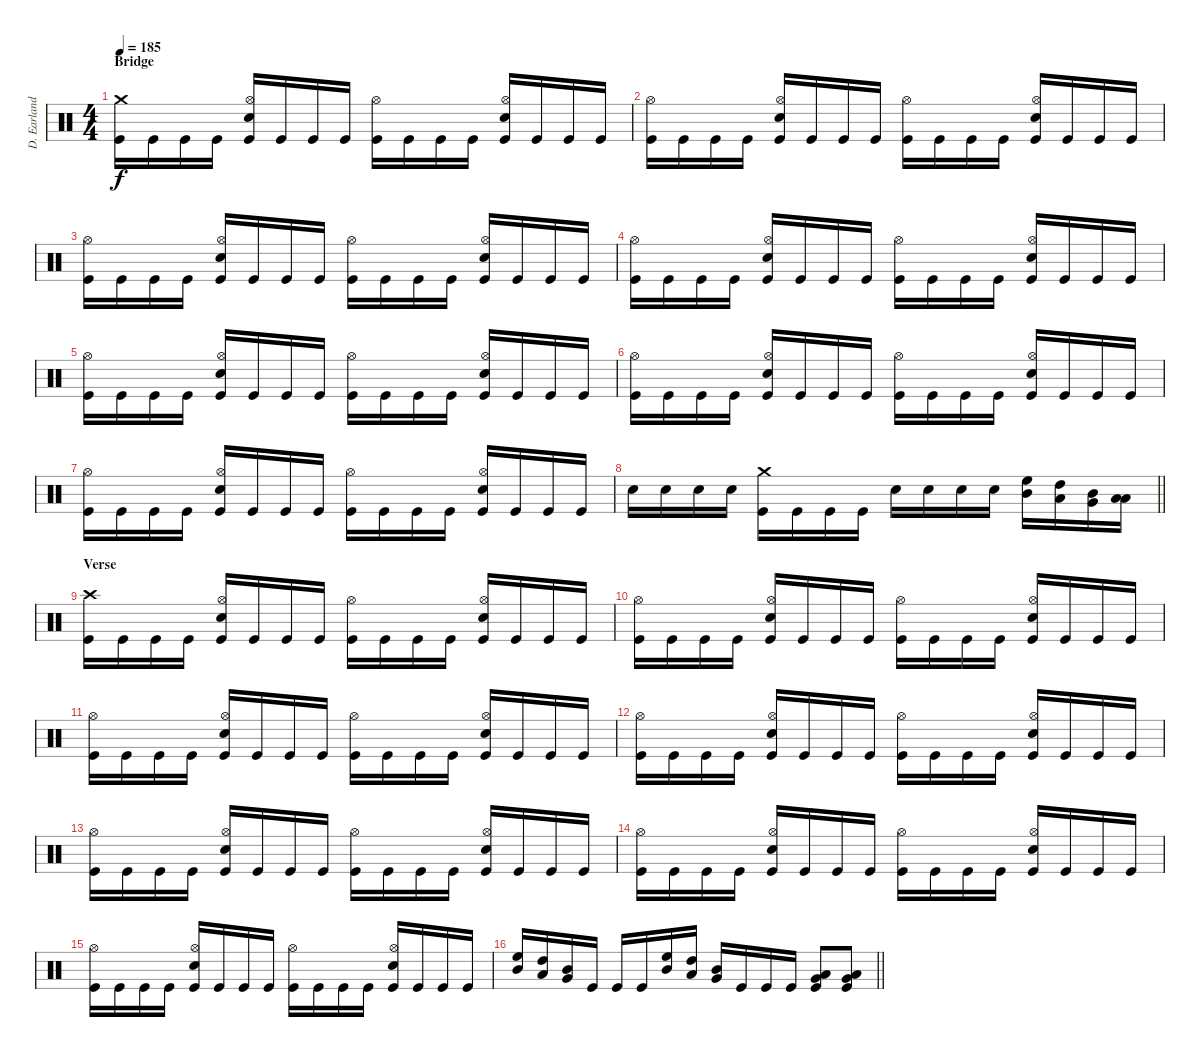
\track ("D. Earlanddson" "D. Earland") {instrument percussion}
\staff {score}
\articulation defaults
\ts (4 4)
\section ("" "Bridge")
\tempo 185
\clef neutral
\ks c
("Crash medium (hit)" "Kick (hit)").16{dy f} "Kick (hit)".16 "Kick (hit)".16 "Kick (hit)".16 ("Hi-Hat (open)" "Electric Snare (hit)" "Kick (hit)").16 "Kick (hit)".16 "Kick (hit)".16 "Kick (hit)".16 ("Hi-Hat (open)" "Kick (hit)").16 "Kick (hit)".16 "Kick (hit)".16 "Kick (hit)".16 ("Hi-Hat (open)" "Electric Snare (hit)" "Kick (hit)").16 "Kick (hit)".16 "Kick (hit)".16 "Kick (hit)".16 |
("Hi-Hat (open)" "Kick (hit)").16 "Kick (hit)".16 "Kick (hit)".16 "Kick (hit)".16 ("Hi-Hat (open)" "Electric Snare (hit)" "Kick (hit)").16 "Kick (hit)".16 "Kick (hit)".16 "Kick (hit)".16 ("Hi-Hat (open)" "Kick (hit)").16 "Kick (hit)".16 "Kick (hit)".16 "Kick (hit)".16 ("Hi-Hat (open)" "Electric Snare (hit)" "Kick (hit)").16 "Kick (hit)".16 "Kick (hit)".16 "Kick (hit)".16 |
("Hi-Hat (open)" "Kick (hit)").16 "Kick (hit)".16 "Kick (hit)".16 "Kick (hit)".16 ("Hi-Hat (open)" "Electric Snare (hit)" "Kick (hit)").16 "Kick (hit)".16 "Kick (hit)".16 "Kick (hit)".16 ("Hi-Hat (open)" "Kick (hit)").16 "Kick (hit)".16 "Kick (hit)".16 "Kick (hit)".16 ("Hi-Hat (open)" "Electric Snare (hit)" "Kick (hit)").16 "Kick (hit)".16 "Kick (hit)".16 "Kick (hit)".16 |
("Hi-Hat (open)" "Kick (hit)").16 "Kick (hit)".16 "Kick (hit)".16 "Kick (hit)".16 ("Hi-Hat (open)" "Electric Snare (hit)" "Kick (hit)").16 "Kick (hit)".16 "Kick (hit)".16 "Kick (hit)".16 ("Hi-Hat (open)" "Kick (hit)").16 "Kick (hit)".16 "Kick (hit)".16 "Kick (hit)".16 ("Hi-Hat (open)" "Electric Snare (hit)" "Kick (hit)").16 "Kick (hit)".16 "Kick (hit)".16 "Kick (hit)".16 |
("Hi-Hat (open)" "Kick (hit)").16 "Kick (hit)".16 "Kick (hit)".16 "Kick (hit)".16 ("Hi-Hat (open)" "Electric Snare (hit)" "Kick (hit)").16 "Kick (hit)".16 "Kick (hit)".16 "Kick (hit)".16 ("Hi-Hat (open)" "Kick (hit)").16 "Kick (hit)".16 "Kick (hit)".16 "Kick (hit)".16 ("Hi-Hat (open)" "Electric Snare (hit)" "Kick (hit)").16 "Kick (hit)".16 "Kick (hit)".16 "Kick (hit)".16 |
("Hi-Hat (open)" "Kick (hit)").16 "Kick (hit)".16 "Kick (hit)".16 "Kick (hit)".16 ("Hi-Hat (open)" "Electric Snare (hit)" "Kick (hit)").16 "Kick (hit)".16 "Kick (hit)".16 "Kick (hit)".16 ("Hi-Hat (open)" "Kick (hit)").16 "Kick (hit)".16 "Kick (hit)".16 "Kick (hit)".16 ("Hi-Hat (open)" "Electric Snare (hit)" "Kick (hit)").16 "Kick (hit)".16 "Kick (hit)".16 "Kick (hit)".16 |
("Hi-Hat (open)" "Kick (hit)").16 "Kick (hit)".16 "Kick (hit)".16 "Kick (hit)".16 ("Hi-Hat (open)" "Electric Snare (hit)" "Kick (hit)").16 "Kick (hit)".16 "Kick (hit)".16 "Kick (hit)".16 ("Hi-Hat (open)" "Kick (hit)").16 "Kick (hit)".16 "Kick (hit)".16 "Kick (hit)".16 ("Hi-Hat (open)" "Electric Snare (hit)" "Kick (hit)").16 "Kick (hit)".16 "Kick (hit)".16 "Kick (hit)".16 |
\barLineRight lightlight "Electric Snare (hit)".16 "Electric Snare (hit)".16 "Electric Snare (hit)".16 "Electric Snare (hit)".16
("Crash medium (hit)" "Kick (hit)").16 "Kick (hit)".16 "Kick (hit)".16 "Kick (hit)".16 "Electric Snare (hit)".16 "Electric Snare (hit)".16 "Electric Snare (hit)".16 "Electric Snare (hit)".16 ("High Floor Tom (hit)" "Mid Tom (hit)").16 ("High Tom (hit)" "Low Tom (hit)").16 ("Mid Tom (hit)" "Very Low Tom (hit)").16 ("Low Tom (hit)" "Low Floor Tom (hit)").16 |
\section ("" "Verse")
("Crash high (hit)" "Kick (hit)").16 "Kick (hit)".16 "Kick (hit)".16 "Kick (hit)".16 ("Hi-Hat (open)" "Electric Snare (hit)" "Kick (hit)").16 "Kick (hit)".16 "Kick (hit)".16 "Kick (hit)".16 ("Hi-Hat (open)" "Kick (hit)").16 "Kick (hit)".16 "Kick (hit)".16 "Kick (hit)".16 ("Hi-Hat (open)" "Electric Snare (hit)" "Kick (hit)").16 "Kick (hit)".16 "Kick (hit)".16 "Kick (hit)".16 |
("Hi-Hat (open)" "Kick (hit)").16 "Kick (hit)".16 "Kick (hit)".16 "Kick (hit)".16 ("Hi-Hat (open)" "Electric Snare (hit)" "Kick (hit)").16 "Kick (hit)".16 "Kick (hit)".16 "Kick (hit)".16 ("Hi-Hat (open)" "Kick (hit)").16 "Kick (hit)".16 "Kick (hit)".16 "Kick (hit)".16 ("Hi-Hat (open)" "Electric Snare (hit)" "Kick (hit)").16 "Kick (hit)".16 "Kick (hit)".16 "Kick (hit)".16 |
("Hi-Hat (open)" "Kick (hit)").16 "Kick (hit)".16 "Kick (hit)".16 "Kick (hit)".16 ("Hi-Hat (open)" "Electric Snare (hit)" "Kick (hit)").16 "Kick (hit)".16 "Kick (hit)".16 "Kick (hit)".16 ("Hi-Hat (open)" "Kick (hit)").16 "Kick (hit)".16 "Kick (hit)".16 "Kick (hit)".16 ("Hi-Hat (open)" "Electric Snare (hit)" "Kick (hit)").16 "Kick (hit)".16 "Kick (hit)".16 "Kick (hit)".16 |
("Hi-Hat (open)" "Kick (hit)").16 "Kick (hit)".16 "Kick (hit)".16 "Kick (hit)".16 ("Hi-Hat (open)" "Electric Snare (hit)" "Kick (hit)").16 "Kick (hit)".16 "Kick (hit)".16 "Kick (hit)".16 ("Hi-Hat (open)" "Kick (hit)").16 "Kick (hit)".16 "Kick (hit)".16 "Kick (hit)".16 ("Hi-Hat (open)" "Electric Snare (hit)" "Kick (hit)").16 "Kick (hit)".16 "Kick (hit)".16 "Kick (hit)".16 |
("Hi-Hat (open)" "Kick (hit)").16 "Kick (hit)".16 "Kick (hit)".16 "Kick (hit)".16 ("Hi-Hat (open)" "Electric Snare (hit)" "Kick (hit)").16 "Kick (hit)".16 "Kick (hit)".16 "Kick (hit)".16 ("Hi-Hat (open)" "Kick (hit)").16 "Kick (hit)".16 "Kick (hit)".16 "Kick (hit)".16 ("Hi-Hat (open)" "Electric Snare (hit)" "Kick (hit)").16 "Kick (hit)".16 "Kick (hit)".16 "Kick (hit)".16 |
("Hi-Hat (open)" "Kick (hit)").16 "Kick (hit)".16 "Kick (hit)".16 "Kick (hit)".16 ("Hi-Hat (open)" "Electric Snare (hit)" "Kick (hit)").16 "Kick (hit)".16 "Kick (hit)".16 "Kick (hit)".16 ("Hi-Hat (open)" "Kick (hit)").16 "Kick (hit)".16 "Kick (hit)".16 "Kick (hit)".16 ("Hi-Hat (open)" "Electric Snare (hit)" "Kick (hit)").16 "Kick (hit)".16 "Kick (hit)".16 "Kick (hit)".16 |
("Hi-Hat (open)" "Kick (hit)").16 "Kick (hit)".16 "Kick (hit)".16 "Kick (hit)".16 ("Hi-Hat (open)" "Electric Snare (hit)" "Kick (hit)").16 "Kick (hit)".16 "Kick (hit)".16 "Kick (hit)".16 ("Hi-Hat (open)" "Kick (hit)").16 "Kick (hit)".16 "Kick (hit)".16 "Kick (hit)".16 ("Hi-Hat (open)" "Electric Snare (hit)" "Kick (hit)").16 "Kick (hit)".16 "Kick (hit)".16 "Kick (hit)".16 |
\barLineRight lightlight
("High Floor Tom (hit)" "Mid Tom (hit)").16 ("High Tom (hit)" "Low Tom (hit)").16 ("Mid Tom (hit)" "Very Low Tom (hit)").16 "Kick (hit)".16 "Kick (hit)".16 "Kick (hit)".16 ("High Floor Tom (hit)" "Mid Tom (hit)").16 ("High Tom (hit)" "Low Tom (hit)").16 ("Mid Tom (hit)" "Very Low Tom (hit)").16 "Kick (hit)".16 "Kick (hit)".16 "Kick (hit)".16 ("Very Low Tom (hit)" "Low Floor Tom (hit)" "Kick (hit)").8 ("Very Low Tom (hit)" "Low Floor Tom (hit)" "Kick (hit)").8
